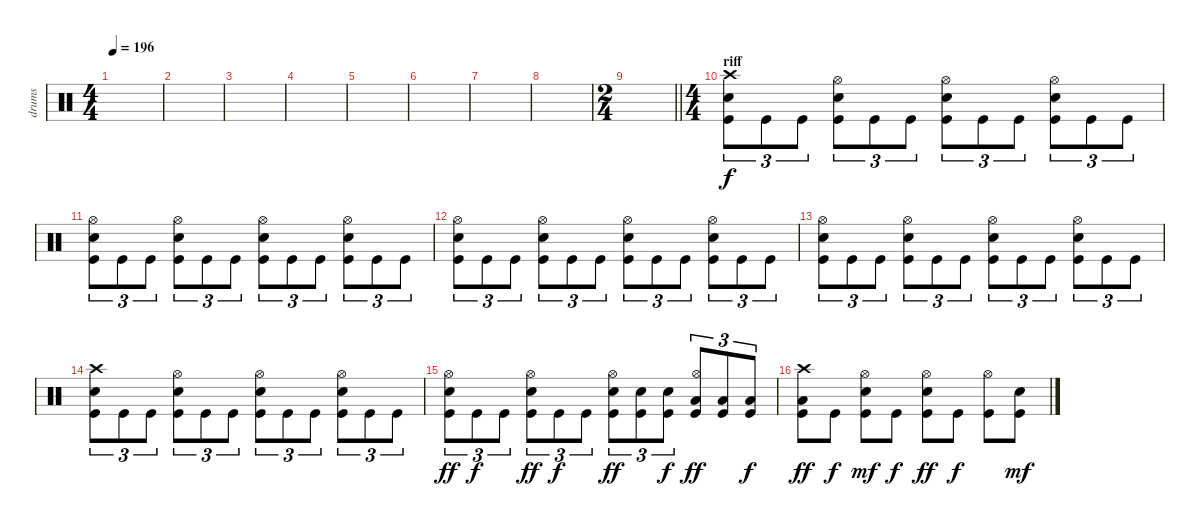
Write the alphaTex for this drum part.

\track ("drums" "drums") {instrument percussion}
\staff {score}
\articulation defaults
\ts (4 4)
\tempo 196
\clef neutral
\ks c
|
|
|
|
|
|
|
|
\ts (2 4)
\barLineRight lightlight
|
\ts (4 4)
\section ("" "riff")
("Crash high (hit)" "Electric Snare (hit)" "Kick (hit)").8{tu (3 2)} "Kick (hit)".8{tu (3 2)} "Kick (hit)".8{tu (3 2)} ("Hi-Hat (open)" "Electric Snare (hit)" "Kick (hit)").8{tu (3 2)} "Kick (hit)".8{tu (3 2)} "Kick (hit)".8{tu (3 2)} ("Hi-Hat (open)" "Electric Snare (hit)" "Kick (hit)").8{tu (3 2)} "Kick (hit)".8{tu (3 2)} "Kick (hit)".8{tu (3 2)} ("Hi-Hat (open)" "Electric Snare (hit)" "Kick (hit)").8{tu (3 2)} "Kick (hit)".8{tu (3 2)} "Kick (hit)".8{tu (3 2)} |
("Hi-Hat (open)" "Electric Snare (hit)" "Kick (hit)").8{tu (3 2)} "Kick (hit)".8{tu (3 2)} "Kick (hit)".8{tu (3 2)} ("Hi-Hat (open)" "Electric Snare (hit)" "Kick (hit)").8{tu (3 2)} "Kick (hit)".8{tu (3 2)} "Kick (hit)".8{tu (3 2)} ("Hi-Hat (open)" "Electric Snare (hit)" "Kick (hit)").8{tu (3 2)} "Kick (hit)".8{tu (3 2)} "Kick (hit)".8{tu (3 2)} ("Hi-Hat (open)" "Electric Snare (hit)" "Kick (hit)").8{tu (3 2)} "Kick (hit)".8{tu (3 2)} "Kick (hit)".8{tu (3 2)} |
("Hi-Hat (open)" "Electric Snare (hit)" "Kick (hit)").8{tu (3 2)} "Kick (hit)".8{tu (3 2)} "Kick (hit)".8{tu (3 2)} ("Hi-Hat (open)" "Electric Snare (hit)" "Kick (hit)").8{tu (3 2)} "Kick (hit)".8{tu (3 2)} "Kick (hit)".8{tu (3 2)} ("Hi-Hat (open)" "Electric Snare (hit)" "Kick (hit)").8{tu (3 2)} "Kick (hit)".8{tu (3 2)} "Kick (hit)".8{tu (3 2)} ("Hi-Hat (open)" "Electric Snare (hit)" "Kick (hit)").8{tu (3 2)} "Kick (hit)".8{tu (3 2)} "Kick (hit)".8{tu (3 2)} |
("Hi-Hat (open)" "Electric Snare (hit)" "Kick (hit)").8{tu (3 2)} "Kick (hit)".8{tu (3 2)} "Kick (hit)".8{tu (3 2)} ("Hi-Hat (open)" "Electric Snare (hit)" "Kick (hit)").8{tu (3 2)} "Kick (hit)".8{tu (3 2)} "Kick (hit)".8{tu (3 2)} ("Hi-Hat (open)" "Electric Snare (hit)" "Kick (hit)").8{tu (3 2)} "Kick (hit)".8{tu (3 2)} "Kick (hit)".8{tu (3 2)} ("Hi-Hat (open)" "Electric Snare (hit)" "Kick (hit)").8{tu (3 2)} "Kick (hit)".8{tu (3 2)} "Kick (hit)".8{tu (3 2)} |
("Crash high (hit)" "Electric Snare (hit)" "Kick (hit)").8{tu (3 2)} "Kick (hit)".8{tu (3 2)} "Kick (hit)".8{tu (3 2)} ("Hi-Hat (open)" "Electric Snare (hit)" "Kick (hit)").8{tu (3 2)} "Kick (hit)".8{tu (3 2)} "Kick (hit)".8{tu (3 2)} ("Hi-Hat (open)" "Electric Snare (hit)" "Kick (hit)").8{tu (3 2)} "Kick (hit)".8{tu (3 2)} "Kick (hit)".8{tu (3 2)} ("Hi-Hat (open)" "Electric Snare (hit)" "Kick (hit)").8{tu (3 2)} "Kick (hit)".8{tu (3 2)} "Kick (hit)".8{tu (3 2)} |
("Hi-Hat (open)" "Electric Snare (hit)" "Kick (hit)").8{tu (3 2) dy ff} "Kick (hit)".8{tu (3 2) dy f} "Kick (hit)".8{tu (3 2)} ("Hi-Hat (open)" "Electric Snare (hit)" "Kick (hit)").8{tu (3 2) dy ff} "Kick (hit)".8{tu (3 2) dy f} "Kick (hit)".8{tu (3 2)} ("Hi-Hat (open)" "Electric Snare (hit)" "Kick (hit)").8{tu (3 2) dy ff} ("Electric Snare (hit)" "Kick (hit)").8{tu (3 2)} ("Electric Snare (hit)" "Kick (hit)").8{tu (3 2) dy f} ("Hi-Hat (open)" "Low Floor Tom (hit)" "Kick (hit)").8{tu (3 2) dy ff} ("Low Floor Tom (hit)" "Kick (hit)").8{tu (3 2)} ("Low Floor Tom (hit)" "Kick (hit)").8{tu (3 2) dy f} |
("Crash high (hit)" "Low Floor Tom (hit)" "Kick (hit)").8{dy ff} "Kick (hit)".8{dy f} ("Hi-Hat (open)" "Electric Snare (hit)" "Kick (hit)").8{dy mf} "Kick (hit)".8{dy f} ("Hi-Hat (open)" "Electric Snare (hit)" "Kick (hit)").8{dy ff} "Kick (hit)".8{dy f} ("Hi-Hat (open)" "Kick (hit)").8 ("Electric Snare (hit)" "Kick (hit)").8{dy mf}
